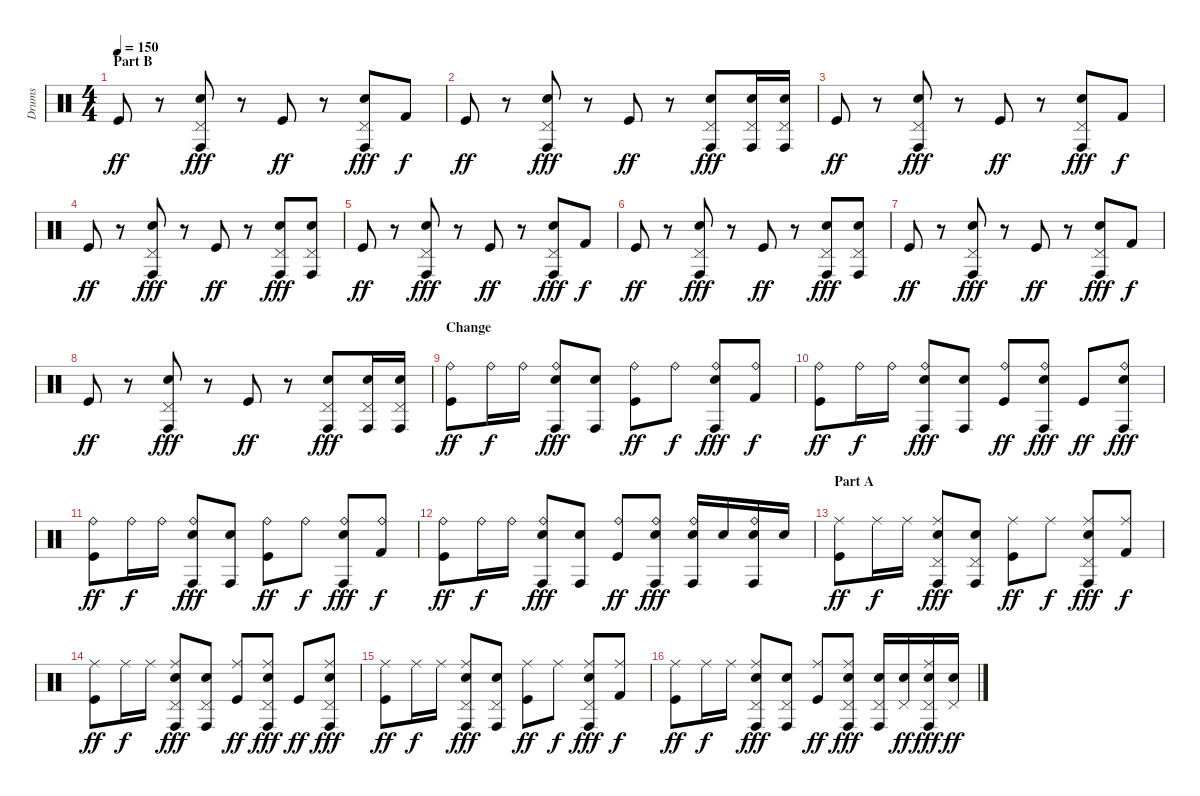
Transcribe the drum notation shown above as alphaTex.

\track ("Drums" "Drums") {instrument percussion}
\staff {score}
\articulation defaults
\ts (4 4)
\section ("" "Part B")
\tempo 150
\clef neutral
\ks c "Kick (hit)".8{dy ff}
r.8 ("Pedal Hi-Hat (hit)" "Conga high (hit)" "Electric Snare (hit)").8{dy fff} r.8 "Kick (hit)".8{dy ff} r.8 ("Pedal Hi-Hat (hit)" "Conga high (hit)" "Electric Snare (hit)").8{dy fff} "Kick (hit) 2".8{dy f} |
"Kick (hit)".8{dy ff} r.8 ("Pedal Hi-Hat (hit)" "Conga high (hit)" "Electric Snare (hit)").8{dy fff} r.8 "Kick (hit)".8{dy ff} r.8 ("Pedal Hi-Hat (hit)" "Conga high (hit)" "Electric Snare (hit)").8{dy fff} ("Pedal Hi-Hat (hit)" "Conga high (hit)" "Electric Snare (hit)").16 ("Pedal Hi-Hat (hit)" "Conga high (hit)" "Electric Snare (hit)").16 |
"Kick (hit)".8{dy ff} r.8 ("Pedal Hi-Hat (hit)" "Conga high (hit)" "Electric Snare (hit)").8{dy fff} r.8 "Kick (hit)".8{dy ff} r.8 ("Pedal Hi-Hat (hit)" "Conga high (hit)" "Electric Snare (hit)").8{dy fff} "Kick (hit) 2".8{dy f} |
"Kick (hit)".8{dy ff} r.8 ("Pedal Hi-Hat (hit)" "Conga high (hit)" "Electric Snare (hit)").8{dy fff} r.8 "Kick (hit)".8{dy ff} r.8 ("Pedal Hi-Hat (hit)" "Conga high (hit)" "Electric Snare (hit)").8{dy fff} ("Pedal Hi-Hat (hit)" "Conga high (hit)" "Electric Snare (hit)").8 |
"Kick (hit)".8{dy ff} r.8 ("Pedal Hi-Hat (hit)" "Conga high (hit)" "Electric Snare (hit)").8{dy fff} r.8 "Kick (hit)".8{dy ff} r.8 ("Pedal Hi-Hat (hit)" "Conga high (hit)" "Electric Snare (hit)").8{dy fff} "Kick (hit) 2".8{dy f} |
"Kick (hit)".8{dy ff} r.8 ("Pedal Hi-Hat (hit)" "Conga high (hit)" "Electric Snare (hit)").8{dy fff} r.8 "Kick (hit)".8{dy ff} r.8 ("Pedal Hi-Hat (hit)" "Conga high (hit)" "Electric Snare (hit)").8{dy fff} ("Pedal Hi-Hat (hit)" "Conga high (hit)" "Electric Snare (hit)").8 |
"Kick (hit)".8{dy ff} r.8 ("Pedal Hi-Hat (hit)" "Conga high (hit)" "Electric Snare (hit)").8{dy fff} r.8 "Kick (hit)".8{dy ff} r.8 ("Pedal Hi-Hat (hit)" "Conga high (hit)" "Electric Snare (hit)").8{dy fff} "Kick (hit) 2".8{dy f} |
"Kick (hit)".8{dy ff} r.8 ("Pedal Hi-Hat (hit)" "Conga high (hit)" "Electric Snare (hit)").8{dy fff} r.8 "Kick (hit)".8{dy ff} r.8 ("Pedal Hi-Hat (hit)" "Conga high (hit)" "Electric Snare (hit)").8{dy fff} ("Pedal Hi-Hat (hit)" "Conga high (hit)" "Electric Snare (hit)").16 ("Pedal Hi-Hat (hit)" "Conga high (hit)" "Electric Snare (hit)").16 |
\section ("" "Change")
("Ride (bell)" "Kick (hit)").8{dy ff} "Ride (bell)".16{dy f} "Ride (bell)".16 ("Ride (bell)" "Conga high (hit)" "Electric Snare (hit)").8{dy fff} ("Conga high (hit)" "Electric Snare (hit)").8 ("Ride (bell)" "Kick (hit)").8{dy ff} "Ride (bell)".8{dy f} ("Ride (bell)" "Conga high (hit)" "Electric Snare (hit)").8{dy fff} ("Ride (bell)" "Kick (hit) 2").8{dy f} |
("Ride (bell)" "Kick (hit)").8{dy ff} "Ride (bell)".16{dy f} "Ride (bell)".16 ("Ride (bell)" "Conga high (hit)" "Electric Snare (hit)").8{dy fff} ("Conga high (hit)" "Electric Snare (hit)").8 ("Ride (bell)" "Kick (hit)").8{dy ff} ("Ride (bell)" "Conga high (hit)" "Electric Snare (hit)").8{dy fff} "Kick (hit)".8{dy ff} ("Ride (bell)" "Conga high (hit)" "Electric Snare (hit)").8{dy fff} |
("Ride (bell)" "Kick (hit)").8{dy ff} "Ride (bell)".16{dy f} "Ride (bell)".16 ("Ride (bell)" "Conga high (hit)" "Electric Snare (hit)").8{dy fff} ("Conga high (hit)" "Electric Snare (hit)").8 ("Ride (bell)" "Kick (hit)").8{dy ff} "Ride (bell)".8{dy f} ("Ride (bell)" "Conga high (hit)" "Electric Snare (hit)").8{dy fff} ("Ride (bell)" "Kick (hit) 2").8{dy f} |
("Ride (bell)" "Kick (hit)").8{dy ff} "Ride (bell)".16{dy f} "Ride (bell)".16 ("Ride (bell)" "Conga high (hit)" "Electric Snare (hit)").8{dy fff} ("Conga high (hit)" "Electric Snare (hit)").8 ("Ride (bell)" "Kick (hit)").8{dy ff} ("Ride (bell)" "Conga high (hit)" "Electric Snare (hit)").8{dy fff} ("Ride (bell)" "Conga high (hit)" "Electric Snare (hit)").16 "Electric Snare (hit)".16 ("Ride (bell)" "Conga high (hit)" "Electric Snare (hit)").16 "Electric Snare (hit)".16 |
\section ("" "Part A")
("Ride (middle)" "Kick (hit)").8{dy ff} "Ride (middle)".16{dy f} "Ride (middle)".16 ("Ride (middle)" "Pedal Hi-Hat (hit)" "Conga high (hit)" "Electric Snare (hit)").8{dy fff} ("Pedal Hi-Hat (hit)" "Conga high (hit)" "Electric Snare (hit)").8 ("Ride (middle)" "Kick (hit)").8{dy ff} "Ride (middle)".8{dy f} ("Ride (middle)" "Pedal Hi-Hat (hit)" "Conga high (hit)" "Electric Snare (hit)").8{dy fff} ("Ride (middle)" "Kick (hit) 2").8{dy f} |
("Ride (middle)" "Kick (hit)").8{dy ff} "Ride (middle)".16{dy f} "Ride (middle)".16 ("Ride (middle)" "Pedal Hi-Hat (hit)" "Conga high (hit)" "Electric Snare (hit)").8{dy fff} ("Pedal Hi-Hat (hit)" "Conga high (hit)" "Electric Snare (hit)").8 ("Ride (middle)" "Kick (hit)").8{dy ff} ("Ride (middle)" "Pedal Hi-Hat (hit)" "Conga high (hit)" "Electric Snare (hit)").8{dy fff} "Kick (hit)".8{dy ff} ("Ride (middle)" "Pedal Hi-Hat (hit)" "Conga high (hit)" "Electric Snare (hit)").8{dy fff} |
("Ride (middle)" "Kick (hit)").8{dy ff} "Ride (middle)".16{dy f} "Ride (middle)".16 ("Ride (middle)" "Pedal Hi-Hat (hit)" "Conga high (hit)" "Electric Snare (hit)").8{dy fff} ("Pedal Hi-Hat (hit)" "Conga high (hit)" "Electric Snare (hit)").8 ("Ride (middle)" "Kick (hit)").8{dy ff} "Ride (middle)".8{dy f} ("Ride (middle)" "Pedal Hi-Hat (hit)" "Conga high (hit)" "Electric Snare (hit)").8{dy fff} ("Ride (middle)" "Kick (hit) 2").8{dy f} |
("Ride (middle)" "Kick (hit)").8{dy ff} "Ride (middle)".16{dy f} "Ride (middle)".16 ("Ride (middle)" "Pedal Hi-Hat (hit)" "Conga high (hit)" "Electric Snare (hit)").8{dy fff} ("Pedal Hi-Hat (hit)" "Conga high (hit)" "Electric Snare (hit)").8 ("Ride (middle)" "Kick (hit)").8{dy ff} ("Ride (middle)" "Pedal Hi-Hat (hit)" "Conga high (hit)" "Electric Snare (hit)").8{dy fff} ("Pedal Hi-Hat (hit)" "Conga high (hit)" "Electric Snare (hit)").16 ("Pedal Hi-Hat (hit)" "Electric Snare (hit)").16{dy ff} ("Ride (middle)" "Pedal Hi-Hat (hit)" "Conga high (hit)" "Electric Snare (hit)").16{dy fff} ("Pedal Hi-Hat (hit)" "Electric Snare (hit)").16{dy ff}
